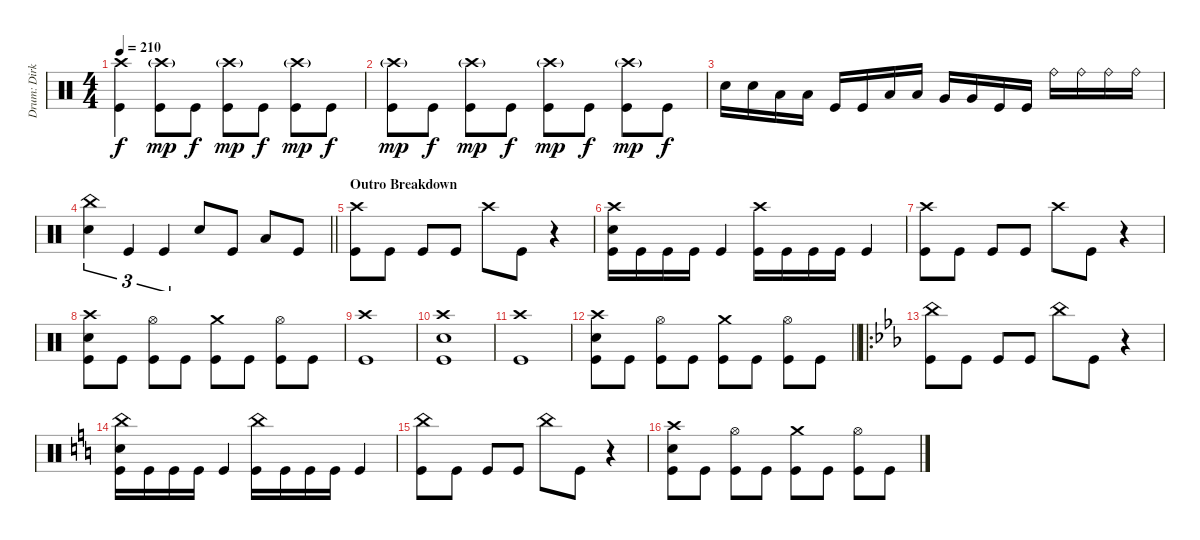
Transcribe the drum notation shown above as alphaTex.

\track ("Drum: Dirk" "Drum: Dirk") {instrument percussion}
\staff {score}
\articulation defaults
\ts (4 4)
\tempo 210
\clef neutral
\ks c
("Crash high (hit)" "Kick (hit)").4{dy f} ("Crash high (hit)"{g} "Kick (hit)").8{dy mp} "Kick (hit)".8{dy f} ("Crash high (hit)"{g} "Kick (hit)").8{dy mp} "Kick (hit)".8{dy f} ("Crash high (hit)"{g} "Kick (hit)").8{dy mp} "Kick (hit)".8{dy f} |
("Crash high (hit)"{g} "Kick (hit)").8{dy mp} "Kick (hit)".8{dy f} ("Crash high (hit)"{g} "Kick (hit)").8{dy mp} "Kick (hit)".8{dy f} ("Crash high (hit)"{g} "Kick (hit)").8{dy mp} "Kick (hit)".8{dy f} ("Crash high (hit)"{g} "Kick (hit)").8{dy mp} "Kick (hit)".8{dy f} |
"Electric Snare (hit)".16 "Electric Snare (hit)".16 "Low Tom (hit)".16 "Low Tom (hit)".16 "Kick (hit)".16 "Kick (hit)".16 "Low Tom (hit)".16 "Low Tom (hit)".16 "Very Low Tom (hit)".16 "Very Low Tom (hit)".16 "Kick (hit)".16 "Kick (hit)".16 "Ride (bell)".16 "Ride (bell)".16 "Ride (bell)".16 "Ride (bell)".16 |
\barLineRight lightlight
("China (hit)" "Electric Snare (hit)").4{tu (3 2)} "Kick (hit)".4{tu (3 2)} "Kick (hit)".4{tu (3 2)} "Electric Snare (hit)".8 "Kick (hit)".8 "Low Tom (hit)".8 "Kick (hit)".8 |
\section ("" "Outro Breakdown")
("Crash high (hit)" "Kick (hit)").8 "Kick (hit)".8 "Kick (hit)".8 "Kick (hit)".8 "Crash high (hit)".8 "Kick (hit)".8 r.4 |
("Crash high (hit)" "Electric Snare (hit)" "Kick (hit)").16 "Kick (hit)".16 "Kick (hit)".16 "Kick (hit)".16 "Kick (hit)".4 ("Crash high (hit)" "Kick (hit)").16 "Kick (hit)".16 "Kick (hit)".16 "Kick (hit)".16 "Kick (hit)".4 |
("Crash high (hit)" "Kick (hit)").8 "Kick (hit)".8 "Kick (hit)".8 "Kick (hit)".8 "Crash high (hit)".8 "Kick (hit)".8 r.4 |
("Crash high (hit)" "Electric Snare (hit)" "Kick (hit)").8 "Kick (hit)".8 ("Hi-Hat (open)" "Kick (hit)").8 "Kick (hit)".8 ("Crash medium (hit)" "Kick (hit)").8 "Kick (hit)".8 ("Hi-Hat (open)" "Kick (hit)").8 "Kick (hit)".8 |
("Crash high (hit)" "Kick (hit)").1 |
("Crash high (hit)" "Electric Snare (hit)" "Kick (hit)").1 |
("Crash high (hit)" "Kick (hit)").1 |
\barLineRight lightlight
("Crash high (hit)" "Electric Snare (hit)" "Kick (hit)").8 "Kick (hit)".8 ("Hi-Hat (open)" "Kick (hit)").8 "Kick (hit)".8 ("Crash medium (hit)" "Kick (hit)").8 "Kick (hit)".8 ("Hi-Hat (open)" "Kick (hit)").8 "Kick (hit)".8 |
\ro
\ks cminor
("China (hit)" "Kick (hit)").8 "Kick (hit)".8 "Kick (hit)".8 "Kick (hit)".8 "China (hit)".8 "Kick (hit)".8 r.4 |
\ks c
("China (hit)" "Electric Snare (hit)" "Kick (hit)").16 "Kick (hit)".16 "Kick (hit)".16 "Kick (hit)".16 "Kick (hit)".4 ("China (hit)" "Kick (hit)").16 "Kick (hit)".16 "Kick (hit)".16 "Kick (hit)".16 "Kick (hit)".4 |
("China (hit)" "Kick (hit)").8 "Kick (hit)".8 "Kick (hit)".8 "Kick (hit)".8 "China (hit)".8 "Kick (hit)".8 r.4 |
("Crash high (hit)" "Electric Snare (hit)" "Kick (hit)").8 "Kick (hit)".8 ("Hi-Hat (open)" "Kick (hit)").8 "Kick (hit)".8 ("Crash medium (hit)" "Kick (hit)").8 "Kick (hit)".8 ("Hi-Hat (open)" "Kick (hit)").8 "Kick (hit)".8
